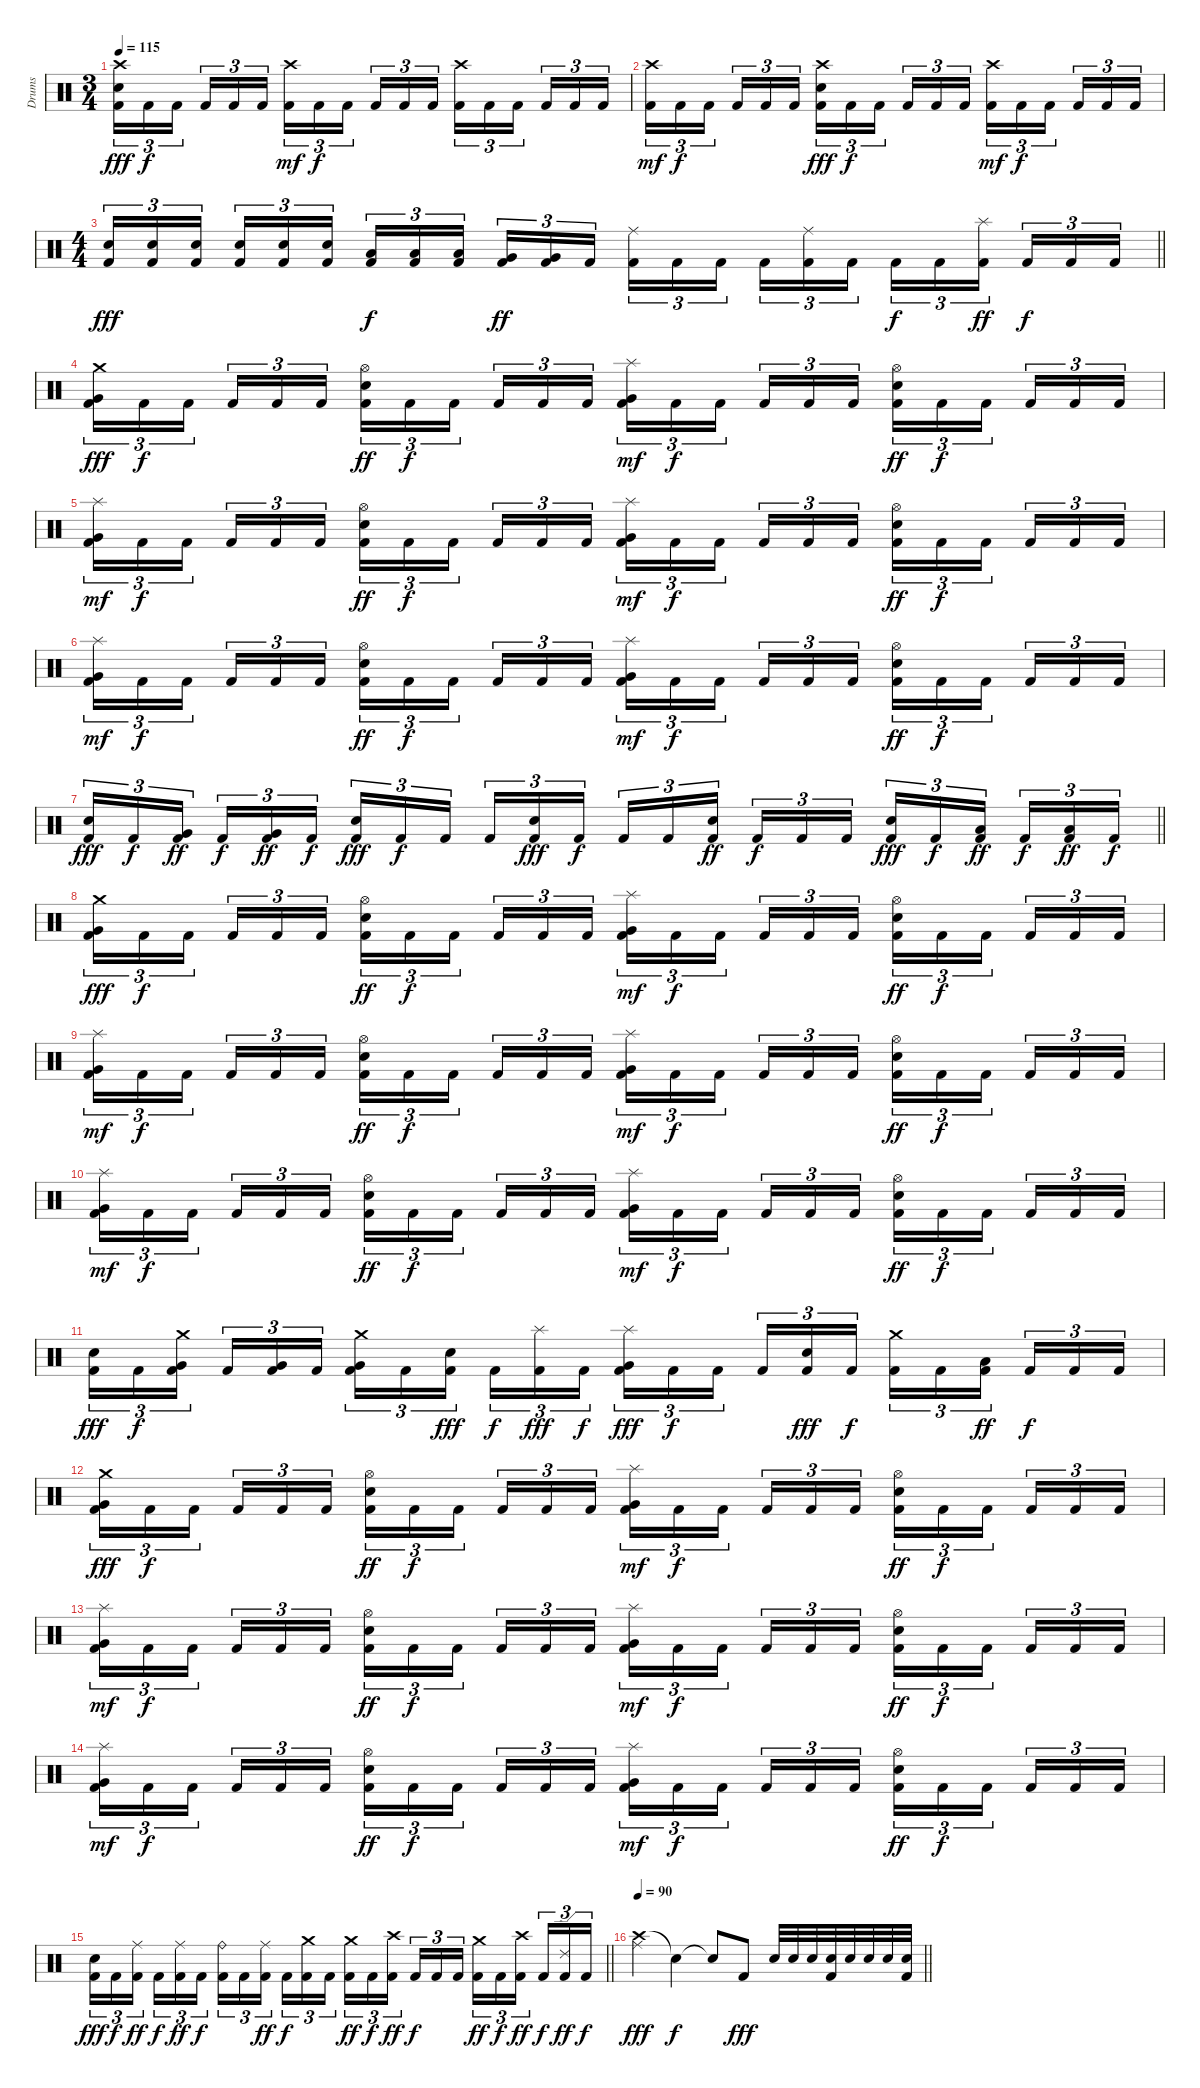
\track ("Drums" "Drums") {instrument percussion}
\staff {score}
\articulation defaults
\ts (3 4)
\tempo 115
\clef neutral
\ks c
("Crash high (hit)" "Snare (hit) 2" "Kick (hit) 2").16{tu (3 2) dy fff} "Kick (hit) 2".16{tu (3 2) dy f} "Kick (hit) 2".16{tu (3 2) beam splitsecondary} "Kick (hit) 2".16{tu (3 2)} "Kick (hit) 2".16{tu (3 2)} "Kick (hit) 2".16{tu (3 2)} ("Crash high (hit)" "Kick (hit) 2").16{tu (3 2) dy mf} "Kick (hit) 2".16{tu (3 2) dy f} "Kick (hit) 2".16{tu (3 2) beam splitsecondary} "Kick (hit) 2".16{tu (3 2)} "Kick (hit) 2".16{tu (3 2)} "Kick (hit) 2".16{tu (3 2)} ("Crash high (hit)" "Kick (hit) 2").16{tu (3 2)} "Kick (hit) 2".16{tu (3 2)} "Kick (hit) 2".16{tu (3 2) beam splitsecondary} "Kick (hit) 2".16{tu (3 2)} "Kick (hit) 2".16{tu (3 2)} "Kick (hit) 2".16{tu (3 2)} |
("Crash high (hit)" "Kick (hit) 2").16{tu (3 2) dy mf} "Kick (hit) 2".16{tu (3 2) dy f} "Kick (hit) 2".16{tu (3 2) beam splitsecondary} "Kick (hit) 2".16{tu (3 2)} "Kick (hit) 2".16{tu (3 2)} "Kick (hit) 2".16{tu (3 2)} ("Crash high (hit)" "Snare (hit) 2" "Kick (hit) 2").16{tu (3 2) dy fff} "Kick (hit) 2".16{tu (3 2) dy f} "Kick (hit) 2".16{tu (3 2) beam splitsecondary} "Kick (hit) 2".16{tu (3 2)} "Kick (hit) 2".16{tu (3 2)} "Kick (hit) 2".16{tu (3 2)} ("Crash high (hit)" "Kick (hit) 2").16{tu (3 2) dy mf} "Kick (hit) 2".16{tu (3 2) dy f} "Kick (hit) 2".16{tu (3 2) beam splitsecondary} "Kick (hit) 2".16{tu (3 2)} "Kick (hit) 2".16{tu (3 2)} "Kick (hit) 2".16{tu (3 2)} |
\ts (4 4)
\barLineRight lightlight
("Snare (hit) 2" "Kick (hit) 2").16{tu (3 2) dy fff} ("Snare (hit) 2" "Kick (hit) 2").16{tu (3 2)} ("Snare (hit) 2" "Kick (hit) 2").16{tu (3 2) beam splitsecondary} ("Snare (hit) 2" "Kick (hit) 2").16{tu (3 2)} ("Snare (hit) 2" "Kick (hit) 2").16{tu (3 2)} ("Snare (hit) 2" "Kick (hit) 2").16{tu (3 2)} ("Low Tom (hit)" "Kick (hit) 2").16{tu (3 2) dy f} ("Low Tom (hit)" "Kick (hit) 2").16{tu (3 2)} ("Low Tom (hit)" "Kick (hit) 2").16{tu (3 2) beam splitsecondary} ("Very Low Tom (hit)" "Kick (hit) 2").16{tu (3 2) dy ff} ("Very Low Tom (hit)" "Kick (hit) 2").16{tu (3 2)} "Kick (hit) 2".16{tu (3 2)} ("Ride (middle)" "Kick (hit) 2").16{tu (3 2)} "Kick (hit) 2".16{tu (3 2)} "Kick (hit) 2".16{tu (3 2) beam splitsecondary} "Kick (hit) 2".16{tu (3 2)} ("Ride (middle)" "Kick (hit) 2").16{tu (3 2)} "Kick (hit) 2".16{tu (3 2)} "Kick (hit) 2".16{tu (3 2) dy f} "Kick (hit) 2".16{tu (3 2)} ("Splash (hit)" "Kick (hit) 2").16{tu (3 2) dy ff beam splitsecondary} "Kick (hit) 2".16{tu (3 2) dy f} "Kick (hit) 2".16{tu (3 2)} "Kick (hit) 2".16{tu (3 2)} |
\section ("" "")
("Crash medium (hit)" "Very Low Tom (hit)" "Kick (hit) 2").16{tu (3 2) dy fff} "Kick (hit) 2".16{tu (3 2) dy f} "Kick (hit) 2".16{tu (3 2) beam splitsecondary} "Kick (hit) 2".16{tu (3 2)} "Kick (hit) 2".16{tu (3 2)} "Kick (hit) 2".16{tu (3 2)} ("Hi-Hat (open)" "Snare (hit) 2" "Kick (hit) 2").16{tu (3 2) dy ff} "Kick (hit) 2".16{tu (3 2) dy f} "Kick (hit) 2".16{tu (3 2) beam splitsecondary} "Kick (hit) 2".16{tu (3 2)} "Kick (hit) 2".16{tu (3 2)} "Kick (hit) 2".16{tu (3 2)} ("Splash (hit)" "Very Low Tom (hit)" "Kick (hit) 2").16{tu (3 2) dy mf} "Kick (hit) 2".16{tu (3 2) dy f} "Kick (hit) 2".16{tu (3 2) beam splitsecondary} "Kick (hit) 2".16{tu (3 2)} "Kick (hit) 2".16{tu (3 2)} "Kick (hit) 2".16{tu (3 2)} ("Hi-Hat (open)" "Snare (hit) 2" "Kick (hit) 2").16{tu (3 2) dy ff} "Kick (hit) 2".16{tu (3 2) dy f} "Kick (hit) 2".16{tu (3 2) beam splitsecondary} "Kick (hit) 2".16{tu (3 2)} "Kick (hit) 2".16{tu (3 2)} "Kick (hit) 2".16{tu (3 2)} |
("Splash (hit)" "Very Low Tom (hit)" "Kick (hit) 2").16{tu (3 2) dy mf} "Kick (hit) 2".16{tu (3 2) dy f} "Kick (hit) 2".16{tu (3 2) beam splitsecondary} "Kick (hit) 2".16{tu (3 2)} "Kick (hit) 2".16{tu (3 2)} "Kick (hit) 2".16{tu (3 2)} ("Hi-Hat (open)" "Snare (hit) 2" "Kick (hit) 2").16{tu (3 2) dy ff} "Kick (hit) 2".16{tu (3 2) dy f} "Kick (hit) 2".16{tu (3 2) beam splitsecondary} "Kick (hit) 2".16{tu (3 2)} "Kick (hit) 2".16{tu (3 2)} "Kick (hit) 2".16{tu (3 2)} ("Splash (hit)" "Very Low Tom (hit)" "Kick (hit) 2").16{tu (3 2) dy mf} "Kick (hit) 2".16{tu (3 2) dy f} "Kick (hit) 2".16{tu (3 2) beam splitsecondary} "Kick (hit) 2".16{tu (3 2)} "Kick (hit) 2".16{tu (3 2)} "Kick (hit) 2".16{tu (3 2)} ("Hi-Hat (open)" "Snare (hit) 2" "Kick (hit) 2").16{tu (3 2) dy ff} "Kick (hit) 2".16{tu (3 2) dy f} "Kick (hit) 2".16{tu (3 2) beam splitsecondary} "Kick (hit) 2".16{tu (3 2)} "Kick (hit) 2".16{tu (3 2)} "Kick (hit) 2".16{tu (3 2)} |
("Splash (hit)" "Very Low Tom (hit)" "Kick (hit) 2").16{tu (3 2) dy mf} "Kick (hit) 2".16{tu (3 2) dy f} "Kick (hit) 2".16{tu (3 2) beam splitsecondary} "Kick (hit) 2".16{tu (3 2)} "Kick (hit) 2".16{tu (3 2)} "Kick (hit) 2".16{tu (3 2)} ("Hi-Hat (open)" "Snare (hit) 2" "Kick (hit) 2").16{tu (3 2) dy ff} "Kick (hit) 2".16{tu (3 2) dy f} "Kick (hit) 2".16{tu (3 2) beam splitsecondary} "Kick (hit) 2".16{tu (3 2)} "Kick (hit) 2".16{tu (3 2)} "Kick (hit) 2".16{tu (3 2)} ("Splash (hit)" "Very Low Tom (hit)" "Kick (hit) 2").16{tu (3 2) dy mf} "Kick (hit) 2".16{tu (3 2) dy f} "Kick (hit) 2".16{tu (3 2) beam splitsecondary} "Kick (hit) 2".16{tu (3 2)} "Kick (hit) 2".16{tu (3 2)} "Kick (hit) 2".16{tu (3 2)} ("Hi-Hat (open)" "Snare (hit) 2" "Kick (hit) 2").16{tu (3 2) dy ff} "Kick (hit) 2".16{tu (3 2) dy f} "Kick (hit) 2".16{tu (3 2) beam splitsecondary} "Kick (hit) 2".16{tu (3 2)} "Kick (hit) 2".16{tu (3 2)} "Kick (hit) 2".16{tu (3 2)} |
\barLineRight lightlight
("Snare (hit) 2" "Kick (hit) 2").16{tu (3 2) dy fff} "Kick (hit) 2".16{tu (3 2) dy f} ("Very Low Tom (hit)" "Kick (hit) 2").16{tu (3 2) dy ff beam splitsecondary} "Kick (hit) 2".16{tu (3 2) dy f} ("Very Low Tom (hit)" "Kick (hit) 2").16{tu (3 2) dy ff} "Kick (hit) 2".16{tu (3 2) dy f} ("Snare (hit) 2" "Kick (hit) 2").16{tu (3 2) dy fff} "Kick (hit) 2".16{tu (3 2) dy f} "Kick (hit) 2".16{tu (3 2) beam splitsecondary} "Kick (hit) 2".16{tu (3 2)} ("Snare (hit) 2" "Kick (hit) 2").16{tu (3 2) dy fff} "Kick (hit) 2".16{tu (3 2) dy f} "Kick (hit) 2".16{tu (3 2)} "Kick (hit) 2".16{tu (3 2)} ("Snare (hit) 2" "Kick (hit) 2").16{tu (3 2) dy ff beam splitsecondary} "Kick (hit) 2".16{tu (3 2) dy f} "Kick (hit) 2".16{tu (3 2)} "Kick (hit) 2".16{tu (3 2)} ("Snare (hit) 2" "Kick (hit) 2").16{tu (3 2) dy fff} "Kick (hit) 2".16{tu (3 2) dy f} ("Low Floor Tom (hit)" "Kick (hit) 2").16{tu (3 2) dy ff beam splitsecondary} "Kick (hit) 2".16{tu (3 2) dy f} ("Low Floor Tom (hit)" "Kick (hit) 2").16{tu (3 2) dy ff} "Kick (hit) 2".16{tu (3 2) dy f} |
("Crash medium (hit)" "Very Low Tom (hit)" "Kick (hit) 2").16{tu (3 2) dy fff} "Kick (hit) 2".16{tu (3 2) dy f} "Kick (hit) 2".16{tu (3 2) beam splitsecondary} "Kick (hit) 2".16{tu (3 2)} "Kick (hit) 2".16{tu (3 2)} "Kick (hit) 2".16{tu (3 2)} ("Hi-Hat (open)" "Snare (hit) 2" "Kick (hit) 2").16{tu (3 2) dy ff} "Kick (hit) 2".16{tu (3 2) dy f} "Kick (hit) 2".16{tu (3 2) beam splitsecondary} "Kick (hit) 2".16{tu (3 2)} "Kick (hit) 2".16{tu (3 2)} "Kick (hit) 2".16{tu (3 2)} ("Splash (hit)" "Very Low Tom (hit)" "Kick (hit) 2").16{tu (3 2) dy mf} "Kick (hit) 2".16{tu (3 2) dy f} "Kick (hit) 2".16{tu (3 2) beam splitsecondary} "Kick (hit) 2".16{tu (3 2)} "Kick (hit) 2".16{tu (3 2)} "Kick (hit) 2".16{tu (3 2)} ("Hi-Hat (open)" "Snare (hit) 2" "Kick (hit) 2").16{tu (3 2) dy ff} "Kick (hit) 2".16{tu (3 2) dy f} "Kick (hit) 2".16{tu (3 2) beam splitsecondary} "Kick (hit) 2".16{tu (3 2)} "Kick (hit) 2".16{tu (3 2)} "Kick (hit) 2".16{tu (3 2)} |
("Splash (hit)" "Very Low Tom (hit)" "Kick (hit) 2").16{tu (3 2) dy mf} "Kick (hit) 2".16{tu (3 2) dy f} "Kick (hit) 2".16{tu (3 2) beam splitsecondary} "Kick (hit) 2".16{tu (3 2)} "Kick (hit) 2".16{tu (3 2)} "Kick (hit) 2".16{tu (3 2)} ("Hi-Hat (open)" "Snare (hit) 2" "Kick (hit) 2").16{tu (3 2) dy ff} "Kick (hit) 2".16{tu (3 2) dy f} "Kick (hit) 2".16{tu (3 2) beam splitsecondary} "Kick (hit) 2".16{tu (3 2)} "Kick (hit) 2".16{tu (3 2)} "Kick (hit) 2".16{tu (3 2)} ("Splash (hit)" "Very Low Tom (hit)" "Kick (hit) 2").16{tu (3 2) dy mf} "Kick (hit) 2".16{tu (3 2) dy f} "Kick (hit) 2".16{tu (3 2) beam splitsecondary} "Kick (hit) 2".16{tu (3 2)} "Kick (hit) 2".16{tu (3 2)} "Kick (hit) 2".16{tu (3 2)} ("Hi-Hat (open)" "Snare (hit) 2" "Kick (hit) 2").16{tu (3 2) dy ff} "Kick (hit) 2".16{tu (3 2) dy f} "Kick (hit) 2".16{tu (3 2) beam splitsecondary} "Kick (hit) 2".16{tu (3 2)} "Kick (hit) 2".16{tu (3 2)} "Kick (hit) 2".16{tu (3 2)} |
("Splash (hit)" "Very Low Tom (hit)" "Kick (hit) 2").16{tu (3 2) dy mf} "Kick (hit) 2".16{tu (3 2) dy f} "Kick (hit) 2".16{tu (3 2) beam splitsecondary} "Kick (hit) 2".16{tu (3 2)} "Kick (hit) 2".16{tu (3 2)} "Kick (hit) 2".16{tu (3 2)} ("Hi-Hat (open)" "Snare (hit) 2" "Kick (hit) 2").16{tu (3 2) dy ff} "Kick (hit) 2".16{tu (3 2) dy f} "Kick (hit) 2".16{tu (3 2) beam splitsecondary} "Kick (hit) 2".16{tu (3 2)} "Kick (hit) 2".16{tu (3 2)} "Kick (hit) 2".16{tu (3 2)} ("Splash (hit)" "Very Low Tom (hit)" "Kick (hit) 2").16{tu (3 2) dy mf} "Kick (hit) 2".16{tu (3 2) dy f} "Kick (hit) 2".16{tu (3 2) beam splitsecondary} "Kick (hit) 2".16{tu (3 2)} "Kick (hit) 2".16{tu (3 2)} "Kick (hit) 2".16{tu (3 2)} ("Hi-Hat (open)" "Snare (hit) 2" "Kick (hit) 2").16{tu (3 2) dy ff} "Kick (hit) 2".16{tu (3 2) dy f} "Kick (hit) 2".16{tu (3 2) beam splitsecondary} "Kick (hit) 2".16{tu (3 2)} "Kick (hit) 2".16{tu (3 2)} "Kick (hit) 2".16{tu (3 2)} |
("Snare (hit) 2" "Kick (hit) 2").16{tu (3 2) dy fff} "Kick (hit) 2".16{tu (3 2) dy f} ("Crash medium (hit)" "Very Low Tom (hit)" "Kick (hit) 2").16{tu (3 2) beam splitsecondary} "Kick (hit) 2".16{tu (3 2)} ("Very Low Tom (hit)" "Kick (hit) 2").16{tu (3 2)} "Kick (hit) 2".16{tu (3 2)} ("Crash medium (hit)" "Very Low Tom (hit)" "Kick (hit) 2").16{tu (3 2)} "Kick (hit) 2".16{tu (3 2)} ("Snare (hit) 2" "Kick (hit) 2").16{tu (3 2) dy fff beam splitsecondary} "Kick (hit) 2".16{tu (3 2) dy f} ("Splash (hit)" "Kick (hit) 2").16{tu (3 2) dy fff} "Kick (hit) 2".16{tu (3 2) dy f} ("Splash (hit)" "Very Low Tom (hit)" "Kick (hit) 2").16{tu (3 2) dy fff} "Kick (hit) 2".16{tu (3 2) dy f} "Kick (hit) 2".16{tu (3 2) beam splitsecondary} "Kick (hit) 2".16{tu (3 2)} ("Snare (hit) 2" "Kick (hit) 2").16{tu (3 2) dy fff} "Kick (hit) 2".16{tu (3 2) dy f} ("Crash medium (hit)" "Kick (hit) 2").16{tu (3 2)} "Kick (hit) 2".16{tu (3 2)} ("Low Tom (hit)" "Kick (hit) 2").16{tu (3 2) dy ff beam splitsecondary} "Kick (hit) 2".16{tu (3 2) dy f} "Kick (hit) 2".16{tu (3 2)} "Kick (hit) 2".16{tu (3 2)} |
("Crash medium (hit)" "Very Low Tom (hit)" "Kick (hit) 2").16{tu (3 2) dy fff} "Kick (hit) 2".16{tu (3 2) dy f} "Kick (hit) 2".16{tu (3 2) beam splitsecondary} "Kick (hit) 2".16{tu (3 2)} "Kick (hit) 2".16{tu (3 2)} "Kick (hit) 2".16{tu (3 2)} ("Hi-Hat (open)" "Snare (hit) 2" "Kick (hit) 2").16{tu (3 2) dy ff} "Kick (hit) 2".16{tu (3 2) dy f} "Kick (hit) 2".16{tu (3 2) beam splitsecondary} "Kick (hit) 2".16{tu (3 2)} "Kick (hit) 2".16{tu (3 2)} "Kick (hit) 2".16{tu (3 2)} ("Splash (hit)" "Very Low Tom (hit)" "Kick (hit) 2").16{tu (3 2) dy mf} "Kick (hit) 2".16{tu (3 2) dy f} "Kick (hit) 2".16{tu (3 2) beam splitsecondary} "Kick (hit) 2".16{tu (3 2)} "Kick (hit) 2".16{tu (3 2)} "Kick (hit) 2".16{tu (3 2)} ("Hi-Hat (open)" "Snare (hit) 2" "Kick (hit) 2").16{tu (3 2) dy ff} "Kick (hit) 2".16{tu (3 2) dy f} "Kick (hit) 2".16{tu (3 2) beam splitsecondary} "Kick (hit) 2".16{tu (3 2)} "Kick (hit) 2".16{tu (3 2)} "Kick (hit) 2".16{tu (3 2)} |
("Splash (hit)" "Very Low Tom (hit)" "Kick (hit) 2").16{tu (3 2) dy mf} "Kick (hit) 2".16{tu (3 2) dy f} "Kick (hit) 2".16{tu (3 2) beam splitsecondary} "Kick (hit) 2".16{tu (3 2)} "Kick (hit) 2".16{tu (3 2)} "Kick (hit) 2".16{tu (3 2)} ("Hi-Hat (open)" "Snare (hit) 2" "Kick (hit) 2").16{tu (3 2) dy ff} "Kick (hit) 2".16{tu (3 2) dy f} "Kick (hit) 2".16{tu (3 2) beam splitsecondary} "Kick (hit) 2".16{tu (3 2)} "Kick (hit) 2".16{tu (3 2)} "Kick (hit) 2".16{tu (3 2)} ("Splash (hit)" "Very Low Tom (hit)" "Kick (hit) 2").16{tu (3 2) dy mf} "Kick (hit) 2".16{tu (3 2) dy f} "Kick (hit) 2".16{tu (3 2) beam splitsecondary} "Kick (hit) 2".16{tu (3 2)} "Kick (hit) 2".16{tu (3 2)} "Kick (hit) 2".16{tu (3 2)} ("Hi-Hat (open)" "Snare (hit) 2" "Kick (hit) 2").16{tu (3 2) dy ff} "Kick (hit) 2".16{tu (3 2) dy f} "Kick (hit) 2".16{tu (3 2) beam splitsecondary} "Kick (hit) 2".16{tu (3 2)} "Kick (hit) 2".16{tu (3 2)} "Kick (hit) 2".16{tu (3 2)} |
("Splash (hit)" "Very Low Tom (hit)" "Kick (hit) 2").16{tu (3 2) dy mf} "Kick (hit) 2".16{tu (3 2) dy f} "Kick (hit) 2".16{tu (3 2) beam splitsecondary} "Kick (hit) 2".16{tu (3 2)} "Kick (hit) 2".16{tu (3 2)} "Kick (hit) 2".16{tu (3 2)} ("Hi-Hat (open)" "Snare (hit) 2" "Kick (hit) 2").16{tu (3 2) dy ff} "Kick (hit) 2".16{tu (3 2) dy f} "Kick (hit) 2".16{tu (3 2) beam splitsecondary} "Kick (hit) 2".16{tu (3 2)} "Kick (hit) 2".16{tu (3 2)} "Kick (hit) 2".16{tu (3 2)} ("Splash (hit)" "Very Low Tom (hit)" "Kick (hit) 2").16{tu (3 2) dy mf} "Kick (hit) 2".16{tu (3 2) dy f} "Kick (hit) 2".16{tu (3 2) beam splitsecondary} "Kick (hit) 2".16{tu (3 2)} "Kick (hit) 2".16{tu (3 2)} "Kick (hit) 2".16{tu (3 2)} ("Hi-Hat (open)" "Snare (hit) 2" "Kick (hit) 2").16{tu (3 2) dy ff} "Kick (hit) 2".16{tu (3 2) dy f} "Kick (hit) 2".16{tu (3 2) beam splitsecondary} "Kick (hit) 2".16{tu (3 2)} "Kick (hit) 2".16{tu (3 2)} "Kick (hit) 2".16{tu (3 2)} |
\barLineRight lightlight
("Snare (hit) 2" "Kick (hit) 2").16{tu (3 2) dy fff} "Kick (hit) 2".16{tu (3 2) dy f} ("Ride (middle)" "Kick (hit) 2").16{tu (3 2) dy ff beam splitsecondary} "Kick (hit) 2".16{tu (3 2) dy f} ("Ride (middle)" "Kick (hit) 2").16{tu (3 2) dy ff} "Kick (hit) 2".16{tu (3 2) dy f} ("Ride (bell)" "Kick (hit) 2").16{tu (3 2)} "Kick (hit) 2".16{tu (3 2)} ("Ride (middle)" "Kick (hit) 2").16{tu (3 2) dy ff beam splitsecondary} "Kick (hit) 2".16{tu (3 2) dy f} ("Crash medium (hit)" "Kick (hit) 2").16{tu (3 2)} "Kick (hit) 2".16{tu (3 2)} ("Crash medium (hit)" "Kick (hit) 2").16{tu (3 2) dy ff} "Kick (hit) 2".16{tu (3 2) dy f} ("Crash high (hit)" "Kick (hit) 2").16{tu (3 2) dy ff beam splitsecondary} "Kick (hit) 2".16{tu (3 2) dy f} "Kick (hit) 2".16{tu (3 2)} "Kick (hit) 2".16{tu (3 2)} ("Crash medium (hit)" "Kick (hit) 2").16{tu (3 2) dy ff} "Kick (hit) 2".16{tu (3 2) dy f} ("Crash high (hit)" "Kick (hit) 2").16{tu (3 2) dy ff beam splitsecondary} "Kick (hit) 2".16{tu (3 2) dy f} ("Ride (edge) 2" "Kick (hit) 2").16{tu (3 2) dy ff} "Kick (hit) 2".16{tu (3 2) dy f} |
\section ("" "")
\tempo 90
\barLineRight lightlight
("Crash high (hit)" "Ride (middle)").4{dy fff} "Snare (hit)"{t}.4{dy f} "Snare (hit)"{t}.8 "Kick (hit) 2".8{dy fff} "Snare (hit) 2".32 "Snare (hit) 2".32 "Snare (hit) 2".32 ("Snare (hit) 2" "Kick (hit) 2").32 "Snare (hit) 2".32 "Snare (hit) 2".32 "Snare (hit) 2".32 ("Snare (hit) 2" "Kick (hit) 2").32
